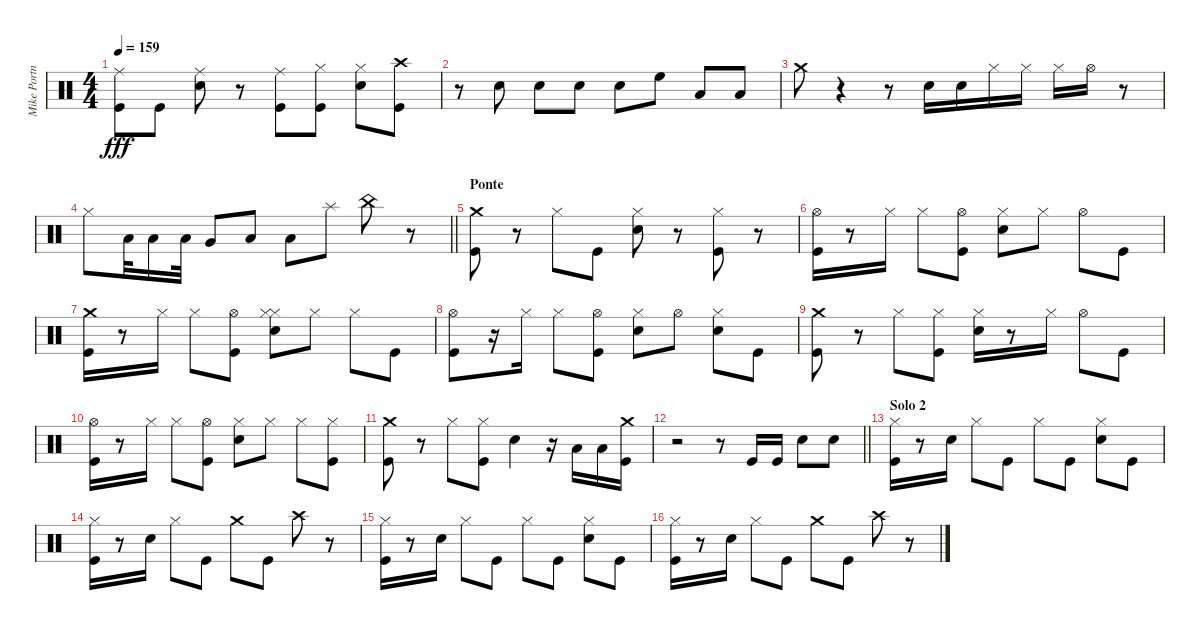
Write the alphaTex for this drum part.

\track ("Mike Portnoy" "Mike Portn") {instrument percussion}
\staff {score}
\articulation defaults
\ts (4 4)
\tempo 159
\clef neutral
\ks c
("Ride (middle)" "Kick (hit)").8{dy fff} "Kick (hit)".8 ("Ride (middle)" "Electric Snare (hit)").8 r.8 ("Ride (middle)" "Kick (hit)").8 ("Hi-Hat (closed)" "Kick (hit)").8 ("Hi-Hat (closed)" "Electric Snare (hit)").8 ("Crash high (hit)" "Kick (hit)").8 |
r.8 "Electric Snare (hit)".8 "Electric Snare (hit)".8 "Electric Snare (hit)".8 "Electric Snare (hit)".8 "High Floor Tom (hit)".8 "Low Tom (hit)".8 "Low Floor Tom (hit)".8 |
"Crash medium (hit)".8 r.4 r.8 "Electric Snare (hit)".16 "Electric Snare (hit)".16 "Hi-Hat (closed)".16 "Hi-Hat (closed)".16 "Hi-Hat (closed)".16 "Hi-Hat (open)".16 r.8 |
\barLineRight lightlight "Hi-Hat (closed)".8 "Low Tom (hit)".32 "Low Tom (hit)".16 "Low Tom (hit)".32 "Very Low Tom (hit)".8 "Low Floor Tom (hit)".8 "Low Floor Tom (hit)".8 "Splash (hit)".8 "China (hit)".8
r.8 |
\section ("" "Ponte")
("Crash medium (hit)" "Kick (hit)").8 r.8 "Hi-Hat (closed)".8 "Kick (hit)".8 ("Hi-Hat (closed)" "Electric Snare (hit)").8 r.8 ("Hi-Hat (closed)" "Kick (hit)").8 r.8 |
("Hi-Hat (open)" "Kick (hit)").16 r.8 "Hi-Hat (closed)".16 "Hi-Hat (closed)".8 ("Hi-Hat (open)" "Kick (hit)").8 ("Electric Snare (hit)" "Hi-Hat (closed)").8 "Hi-Hat (closed)".8 "Hi-Hat (open)".8 "Kick (hit)".8 |
("Crash medium (hit)" "Kick (hit)").16 r.8 "Hi-Hat (closed)".16 "Hi-Hat (closed)".8 ("Hi-Hat (open)" "Kick (hit)").8 ("Hi-Hat (closed)" "Electric Snare (hit)" "Hi-Hat (closed)").8 "Hi-Hat (closed)".8 "Hi-Hat (closed)".8 "Kick (hit)".8 |
("Hi-Hat (open)" "Kick (hit)").8 r.16 "Hi-Hat (closed)".16 "Hi-Hat (closed)".8 ("Hi-Hat (open)" "Kick (hit)").8 ("Hi-Hat (closed)" "Electric Snare (hit)").8 "Hi-Hat (open)".8 ("Hi-Hat (closed)" "Electric Snare (hit)").8 "Kick (hit)".8 |
("Crash medium (hit)" "Kick (hit)").8 r.8 "Hi-Hat (closed)".8 ("Hi-Hat (closed)" "Kick (hit)").8 ("Hi-Hat (closed)" "Electric Snare (hit)").16 r.8 "Hi-Hat (closed)".16 "Hi-Hat (open)".8 "Kick (hit)".8 |
("Hi-Hat (open)" "Kick (hit)").16 r.8 "Hi-Hat (closed)".16 "Hi-Hat (closed)".8 ("Hi-Hat (open)" "Kick (hit)").8 ("Hi-Hat (closed)" "Electric Snare (hit)").8 "Hi-Hat (closed)".8 "Hi-Hat (closed)".8 ("Hi-Hat (closed)" "Kick (hit)").8 |
("Crash medium (hit)" "Kick (hit)").8 r.8 "Hi-Hat (closed)".8 ("Hi-Hat (closed)" "Kick (hit)").8 "Electric Snare (hit)".4 r.16 "Low Floor Tom (hit)".16 "Low Floor Tom (hit)".16 ("Crash medium (hit)" "Kick (hit)").16 |
\barLineRight lightlight
r.2 r.8 "Kick (hit)".16 "Kick (hit)".16 "Electric Snare (hit)".8 "Electric Snare (hit)".8 |
\section ("" "Solo 2")
("Hi-Hat (closed)" "Kick (hit)").16 r.8 "Electric Snare (hit)".16 "Hi-Hat (closed)".8 "Kick (hit)".8 "Hi-Hat (closed)".8 "Kick (hit)".8 ("Hi-Hat (closed)" "Electric Snare (hit)").8 "Kick (hit)".8 |
("Hi-Hat (closed)" "Kick (hit)").16 r.8 "Electric Snare (hit)".16 "Hi-Hat (closed)".8 "Kick (hit)".8 "Crash medium (hit)".8 "Kick (hit)".8 "Crash high (hit)".8 r.8 |
("Hi-Hat (closed)" "Kick (hit)").16 r.8 "Electric Snare (hit)".16 "Hi-Hat (closed)".8 "Kick (hit)".8 "Hi-Hat (closed)".8 "Kick (hit)".8 ("Hi-Hat (closed)" "Electric Snare (hit)").8 "Kick (hit)".8 |
("Hi-Hat (closed)" "Kick (hit)").16 r.8 "Electric Snare (hit)".16 "Hi-Hat (closed)".8 "Kick (hit)".8 "Crash medium (hit)".8 "Kick (hit)".8 "Crash high (hit)".8 r.8
